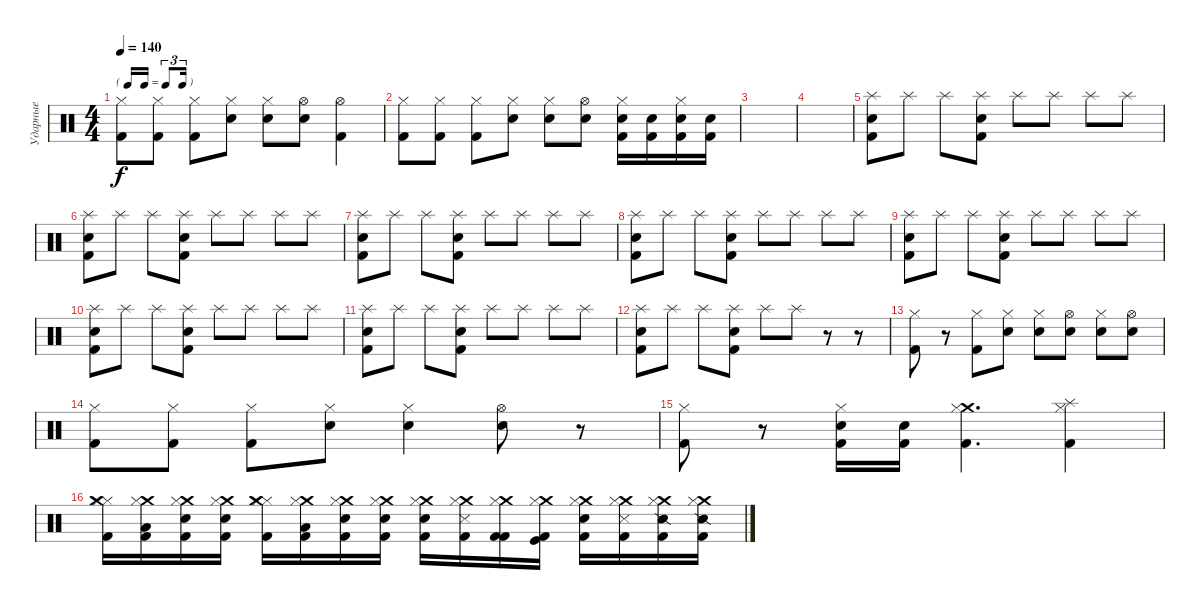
\track ("Ударные" "Ударные") {instrument percussion}
\staff {score}
\articulation defaults
\ts (4 4)
\tf triplet16th
\tempo 140
\clef neutral
\ks c
("Hi-Hat (closed)" "Kick (hit) 2").8{dy f} ("Hi-Hat (closed)" "Kick (hit) 2").8 ("Hi-Hat (closed)" "Kick (hit) 2").8 ("Hi-Hat (closed)" "Snare (hit) 2").8 ("Hi-Hat (closed)" "Snare (hit) 2").8 ("Hi-Hat (open)" "Snare (hit) 2").8 ("Hi-Hat (open)" "Kick (hit) 2").4 |
("Hi-Hat (closed)" "Kick (hit) 2").8 ("Hi-Hat (closed)" "Kick (hit) 2").8 ("Hi-Hat (closed)" "Kick (hit) 2").8 ("Hi-Hat (closed)" "Snare (hit) 2").8 ("Hi-Hat (closed)" "Snare (hit) 2").8 ("Hi-Hat (open)" "Snare (hit) 2").8 ("Snare (hit) 2" "Hi-Hat (closed)" "Kick (hit) 2").16 ("Snare (hit) 2" "Kick (hit) 2").16 ("Snare (hit) 2" "Hi-Hat (closed)" "Kick (hit) 2").16 ("Snare (hit) 2" "Kick (hit) 2").16 |
|
|
("Splash (hit)" "Snare (hit) 2" "Kick (hit) 2").8 "Splash (hit)".8 "Splash (hit)".8 ("Splash (hit)" "Snare (hit) 2" "Kick (hit) 2").8 "Splash (hit)".8 "Splash (hit)".8 "Splash (hit)".8 "Splash (hit)".8 |
("Splash (hit)" "Snare (hit) 2" "Kick (hit) 2").8 "Splash (hit)".8 "Splash (hit)".8 ("Splash (hit)" "Snare (hit) 2" "Kick (hit) 2").8 "Splash (hit)".8 "Splash (hit)".8 "Splash (hit)".8 "Splash (hit)".8 |
("Splash (hit)" "Snare (hit) 2" "Kick (hit) 2").8 "Splash (hit)".8 "Splash (hit)".8 ("Splash (hit)" "Snare (hit) 2" "Kick (hit) 2").8 "Splash (hit)".8 "Splash (hit)".8 "Splash (hit)".8 "Splash (hit)".8 |
("Splash (hit)" "Snare (hit) 2" "Kick (hit) 2").8 "Splash (hit)".8 "Splash (hit)".8 ("Splash (hit)" "Snare (hit) 2" "Kick (hit) 2").8 "Splash (hit)".8 "Splash (hit)".8 "Splash (hit)".8 "Splash (hit)".8 |
("Splash (hit)" "Snare (hit) 2" "Kick (hit) 2").8 "Splash (hit)".8 "Splash (hit)".8 ("Splash (hit)" "Snare (hit) 2" "Kick (hit) 2").8 "Splash (hit)".8 "Splash (hit)".8 "Splash (hit)".8 "Splash (hit)".8 |
("Splash (hit)" "Snare (hit) 2" "Kick (hit) 2").8 "Splash (hit)".8 "Splash (hit)".8 ("Splash (hit)" "Snare (hit) 2" "Kick (hit) 2").8 "Splash (hit)".8 "Splash (hit)".8 "Splash (hit)".8 "Splash (hit)".8 |
("Splash (hit)" "Snare (hit) 2" "Kick (hit) 2").8 "Splash (hit)".8 "Splash (hit)".8 ("Splash (hit)" "Snare (hit) 2" "Kick (hit) 2").8 "Splash (hit)".8 "Splash (hit)".8 "Splash (hit)".8 "Splash (hit)".8 |
("Splash (hit)" "Snare (hit) 2" "Kick (hit) 2").8 "Splash (hit)".8 "Splash (hit)".8 ("Splash (hit)" "Snare (hit) 2" "Kick (hit) 2").8 "Splash (hit)".8 "Splash (hit)".8 r.8 r.8 |
("Hi-Hat (closed)" "Kick (hit) 2").8 r.8 ("Hi-Hat (closed)" "Kick (hit) 2").8 ("Hi-Hat (closed)" "Snare (hit) 2").8 ("Hi-Hat (closed)" "Snare (hit) 2").8 ("Hi-Hat (open)" "Snare (hit) 2").8 ("Hi-Hat (closed)" "Snare (hit) 2").8 ("Hi-Hat (open)" "Snare (hit) 2").8 |
("Hi-Hat (closed)" "Kick (hit) 2").8 ("Hi-Hat (closed)" "Kick (hit) 2").8 ("Hi-Hat (closed)" "Kick (hit) 2").8 ("Hi-Hat (closed)" "Snare (hit) 2").8 ("Hi-Hat (closed)" "Snare (hit) 2").4 ("Hi-Hat (open)" "Snare (hit) 2").8 r.8 |
("Hi-Hat (closed)" "Kick (hit) 2").8 r.8 ("Snare (hit) 2" "Hi-Hat (closed)" "Kick (hit) 2").16 ("Snare (hit) 2" "Kick (hit) 2").16 ("Crash medium (hit)" "Hi-Hat (closed)" "Kick (hit) 2").4{d} ("Splash (hit)" "Hi-Hat (closed)" "Kick (hit) 2").4 |
("Hi-Hat (closed)" "Crash medium (hit)" "Hi-Hat (closed)" "Kick (hit) 2").16 ("Low Floor Tom (hit)" "Crash medium (hit)" "Hi-Hat (closed)" "Kick (hit) 2").16 ("Electric Snare (hit)" "Crash medium (hit)" "Hi-Hat (closed)" "Kick (hit) 2").16 ("Hand Clap (hit)" "Crash medium (hit)" "Hi-Hat (closed)" "Kick (hit) 2").16 ("Hi-Hat (closed)" "Crash medium (hit)" "Hi-Hat (closed)" "Kick (hit) 2").16 ("Low Floor Tom (hit)" "Crash medium (hit)" "Hi-Hat (closed)" "Kick (hit) 2").16 ("Electric Snare (hit)" "Crash medium (hit)" "Hi-Hat (closed)" "Kick (hit) 2").16 ("Hand Clap (hit)" "Crash medium (hit)" "Hi-Hat (closed)" "Kick (hit) 2").16 ("Snare (hit) 2" "Crash medium (hit)" "Hi-Hat (closed)" "Kick (hit) 2").16 ("Snare (side stick) 3" "Crash medium (hit)" "Hi-Hat (closed)" "Kick (hit) 2").16 ("Kick (hit) 2" "Crash medium (hit)" "Hi-Hat (closed)" "Kick (hit) 2").16 ("Kick (hit)" "Crash medium (hit)" "Hi-Hat (closed)" "Kick (hit) 2").16 ("Metronome (bell)" "Crash medium (hit)" "Hi-Hat (closed)" "Kick (hit) 2").16 ("Metronome (hit)" "Crash medium (hit)" "Hi-Hat (closed)" "Kick (hit) 2").16 ("Snare (side stick) 2" "Crash medium (hit)" "Hi-Hat (closed)" "Kick (hit) 2").16 ("Snare (side stick) 2" "Crash medium (hit)" "Hi-Hat (closed)" "Kick (hit) 2").16
